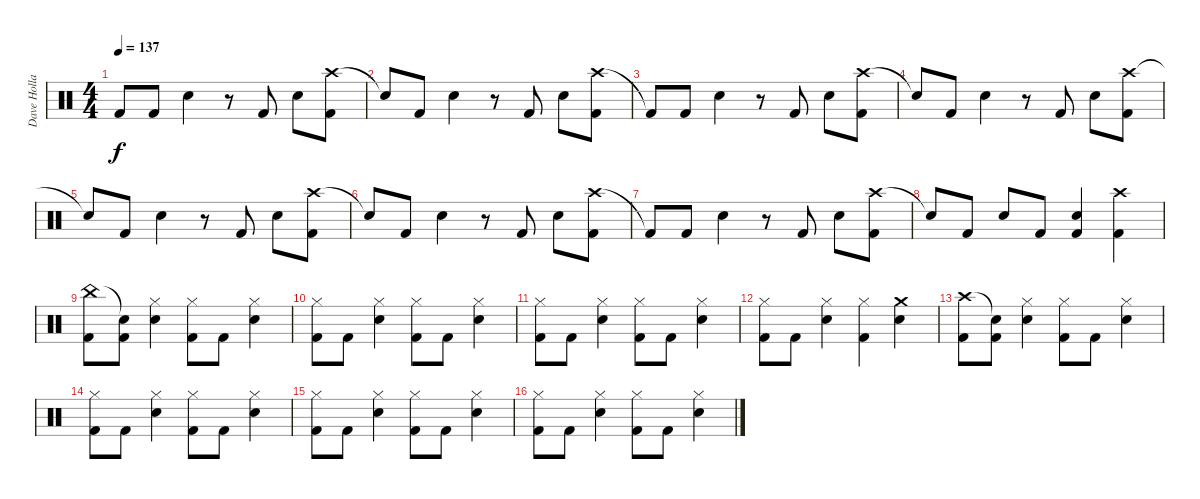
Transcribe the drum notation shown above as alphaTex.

\track ("Dave Holland" "Dave Holla") {instrument percussion}
\staff {score}
\articulation defaults
\ts (4 4)
\tempo 137
\clef neutral
\ks c "Kick (hit) 2"{t}.8{dy f} "Kick (hit) 2".8 "Snare (hit) 2".4
r.8 "Kick (hit) 2".8 "Snare (hit) 2".8 ("Crash high (hit)" "Kick (hit) 2").8 |
"Snare (hit)"{t}.8 "Kick (hit) 2".8 "Snare (hit) 2".4 r.8 "Kick (hit) 2".8 "Snare (hit) 2".8 ("Crash high (hit)" "Kick (hit) 2").8 |
"Kick (hit) 2"{t}.8 "Kick (hit) 2".8 "Snare (hit) 2".4 r.8 "Kick (hit) 2".8 "Snare (hit) 2".8 ("Crash high (hit)" "Kick (hit) 2").8 |
"Snare (hit)"{t}.8 "Kick (hit) 2".8 "Snare (hit) 2".4 r.8 "Kick (hit) 2".8 "Snare (hit) 2".8 ("Crash high (hit)" "Kick (hit) 2").8 |
"Snare (hit)"{t}.8 "Kick (hit) 2".8 "Snare (hit) 2".4 r.8 "Kick (hit) 2".8 "Snare (hit) 2".8 ("Crash high (hit)" "Kick (hit) 2").8 |
"Snare (hit)"{t}.8 "Kick (hit) 2".8 "Snare (hit) 2".4 r.8 "Kick (hit) 2".8 "Snare (hit) 2".8 ("Crash high (hit)" "Kick (hit) 2").8 |
"Kick (hit) 2"{t}.8 "Kick (hit) 2".8 "Snare (hit) 2".4 r.8 "Kick (hit) 2".8 "Snare (hit) 2".8 ("Crash high (hit)" "Kick (hit) 2").8 |
"Snare (hit)"{t}.8 "Kick (hit) 2".8 "Snare (hit) 2".8 "Kick (hit) 2".8 ("Snare (hit) 2" "Kick (hit) 2").4 ("Crash high (hit)" "Kick (hit) 2").4 |
("China (hit)" "Kick (hit) 2").8 ("Snare (hit)"{t} "Kick (hit) 2").8 ("Hi-Hat (closed)" "Snare (hit) 2").4 ("Hi-Hat (closed)" "Kick (hit) 2").8 "Kick (hit) 2".8 ("Hi-Hat (closed)" "Snare (hit) 2").4 |
("Hi-Hat (closed)" "Kick (hit) 2").8 "Kick (hit) 2".8 ("Hi-Hat (closed)" "Snare (hit) 2").4 ("Hi-Hat (closed)" "Kick (hit) 2").8 "Kick (hit) 2".8 ("Hi-Hat (closed)" "Snare (hit) 2").4 |
("Hi-Hat (closed)" "Kick (hit) 2").8 "Kick (hit) 2".8 ("Hi-Hat (closed)" "Snare (hit) 2").4 ("Hi-Hat (closed)" "Kick (hit) 2").8 "Kick (hit) 2".8 ("Hi-Hat (closed)" "Snare (hit) 2").4 |
("Hi-Hat (closed)" "Kick (hit) 2").8 "Kick (hit) 2".8 ("Hi-Hat (closed)" "Snare (hit) 2").4 ("Hi-Hat (closed)" "Kick (hit) 2").4 ("Crash medium (hit)" "Snare (hit) 2").4 |
("Crash high (hit)" "Kick (hit) 2").8 ("Snare (hit)"{t} "Kick (hit) 2").8 ("Hi-Hat (closed)" "Snare (hit) 2").4 ("Hi-Hat (closed)" "Kick (hit) 2").8 "Kick (hit) 2".8 ("Hi-Hat (closed)" "Snare (hit) 2").4 |
("Hi-Hat (closed)" "Kick (hit) 2").8 "Kick (hit) 2".8 ("Hi-Hat (closed)" "Snare (hit) 2").4 ("Hi-Hat (closed)" "Kick (hit) 2").8 "Kick (hit) 2".8 ("Hi-Hat (closed)" "Snare (hit) 2").4 |
("Hi-Hat (closed)" "Kick (hit) 2").8 "Kick (hit) 2".8 ("Hi-Hat (closed)" "Snare (hit) 2").4 ("Hi-Hat (closed)" "Kick (hit) 2").8 "Kick (hit) 2".8 ("Hi-Hat (closed)" "Snare (hit) 2").4 |
("Hi-Hat (closed)" "Kick (hit) 2").8 "Kick (hit) 2".8 ("Hi-Hat (closed)" "Snare (hit) 2").4 ("Hi-Hat (closed)" "Kick (hit) 2").8 "Kick (hit) 2".8 ("Hi-Hat (closed)" "Snare (hit) 2").4
